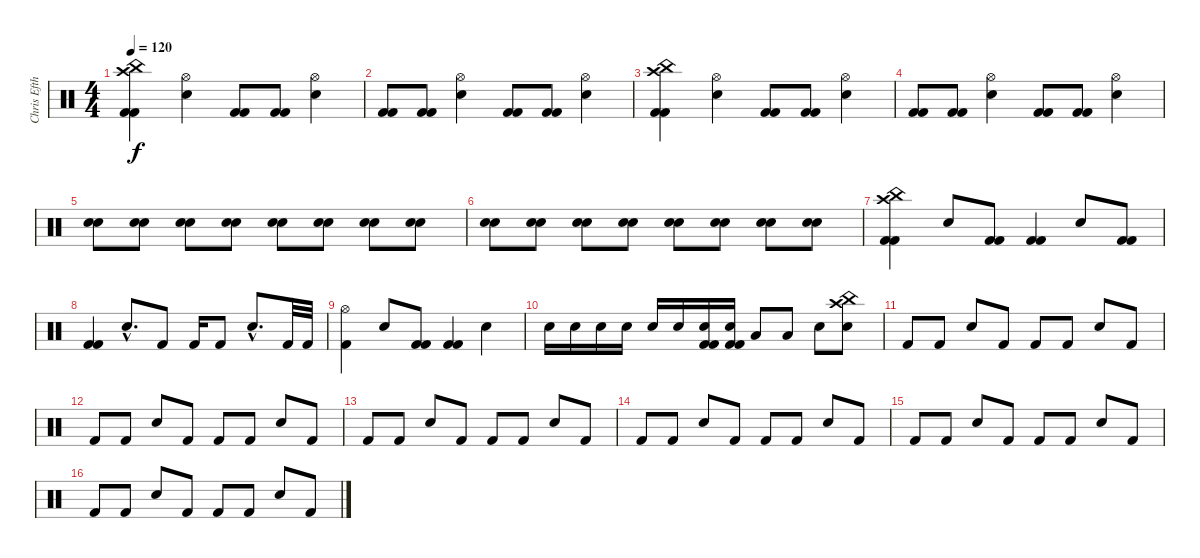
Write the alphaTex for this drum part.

\track ("Chris Efthimiadis" "Chris Efth") {instrument percussion}
\staff {score}
\articulation defaults
\ts (4 4)
\tempo 120
\clef neutral
\ks c
("Crash high (hit)" "Kick (hit) 2" "Kick (hit) 2" "China (hit)").4{dy f} ("Snare (hit) 2" "Hi-Hat (open)").4 ("Kick (hit) 2" "Kick (hit) 2").8 ("Kick (hit) 2" "Kick (hit) 2").8 ("Snare (hit) 2" "Hi-Hat (open)").4 |
("Kick (hit) 2" "Kick (hit) 2").8 ("Kick (hit) 2" "Kick (hit) 2").8 ("Snare (hit) 2" "Hi-Hat (open)").4 ("Kick (hit) 2" "Kick (hit) 2").8 ("Kick (hit) 2" "Kick (hit) 2").8 ("Snare (hit) 2" "Hi-Hat (open)").4 |
("Crash high (hit)" "Kick (hit) 2" "Kick (hit) 2" "China (hit)").4 ("Snare (hit) 2" "Hi-Hat (open)").4 ("Kick (hit) 2" "Kick (hit) 2").8 ("Kick (hit) 2" "Kick (hit) 2").8 ("Snare (hit) 2" "Hi-Hat (open)").4 |
("Kick (hit) 2" "Kick (hit) 2").8 ("Kick (hit) 2" "Kick (hit) 2").8 ("Snare (hit) 2" "Hi-Hat (open)").4 ("Kick (hit) 2" "Kick (hit) 2").8 ("Kick (hit) 2" "Kick (hit) 2").8 ("Hi-Hat (open)" "Snare (hit) 2").4 |
("Snare (hit) 2" "Snare (hit) 2").8 ("Snare (hit) 2" "Snare (hit) 2").8 ("Snare (hit) 2" "Snare (hit) 2").8 ("Snare (hit) 2" "Snare (hit) 2").8 ("Snare (hit) 2" "Snare (hit) 2").8 ("Snare (hit) 2" "Snare (hit) 2").8 ("Snare (hit) 2" "Snare (hit) 2").8 ("Snare (hit) 2" "Snare (hit) 2").8 |
("Snare (hit) 2" "Snare (hit) 2").8 ("Snare (hit) 2" "Snare (hit) 2").8 ("Snare (hit) 2" "Snare (hit) 2").8 ("Snare (hit) 2" "Snare (hit) 2").8 ("Snare (hit) 2" "Snare (hit) 2").8 ("Snare (hit) 2" "Snare (hit) 2").8 ("Snare (hit) 2" "Snare (hit) 2").8 ("Snare (hit) 2" "Snare (hit) 2").8 |
("Kick (hit) 2" "Kick (hit) 2" "China (hit)" "Crash high (hit)").4 "Snare (hit) 2".8 ("Kick (hit) 2" "Kick (hit) 2").8 ("Kick (hit) 2" "Kick (hit) 2").4 "Snare (hit) 2".8 ("Kick (hit) 2" "Kick (hit) 2").8 |
("Kick (hit) 2" "Kick (hit) 2").4 "Snare (hit) 2"{hac}.8{d} "Kick (hit) 2".8 "Kick (hit) 2".16 "Kick (hit) 2".8 "Snare (hit) 2"{hac}.8{d} "Kick (hit) 2".32 "Kick (hit) 2".32 |
("Hi-Hat (open)" "Kick (hit) 2").4 "Snare (hit) 2".8 ("Kick (hit) 2" "Kick (hit) 2").8 ("Kick (hit) 2" "Kick (hit) 2").4 "Snare (hit) 2".4 |
"Snare (hit) 2".16 "Snare (hit) 2".16 "Snare (hit) 2".16 "Snare (hit) 2".16 "Snare (hit) 2".16 "Snare (hit) 2".16 ("Snare (hit) 2" "Kick (hit) 2" "Kick (hit) 2").16 ("Snare (hit) 2" "Kick (hit) 2" "Kick (hit) 2").16 "Low Tom (hit)".8 "Low Tom (hit)".8 "Snare (hit) 2".8 ("Snare (hit) 2" "China (hit)" "Crash high (hit)").8 |
"Kick (hit) 2".8 "Kick (hit) 2".8 "Snare (hit) 2".8 "Kick (hit) 2".8 "Kick (hit) 2".8 "Kick (hit) 2".8 "Snare (hit) 2".8 "Kick (hit) 2".8 |
"Kick (hit) 2".8 "Kick (hit) 2".8 "Snare (hit) 2".8 "Kick (hit) 2".8 "Kick (hit) 2".8 "Kick (hit) 2".8 "Snare (hit) 2".8 "Kick (hit) 2".8 |
"Kick (hit) 2".8 "Kick (hit) 2".8 "Snare (hit) 2".8 "Kick (hit) 2".8 "Kick (hit) 2".8 "Kick (hit) 2".8 "Snare (hit) 2".8 "Kick (hit) 2".8 |
"Kick (hit) 2".8 "Kick (hit) 2".8 "Snare (hit) 2".8 "Kick (hit) 2".8 "Kick (hit) 2".8 "Kick (hit) 2".8 "Snare (hit) 2".8 "Kick (hit) 2".8 |
"Kick (hit) 2".8 "Kick (hit) 2".8 "Snare (hit) 2".8 "Kick (hit) 2".8 "Kick (hit) 2".8 "Kick (hit) 2".8 "Snare (hit) 2".8 "Kick (hit) 2".8 |
"Kick (hit) 2".8 "Kick (hit) 2".8 "Snare (hit) 2".8 "Kick (hit) 2".8 "Kick (hit) 2".8 "Kick (hit) 2".8 "Snare (hit) 2".8 "Kick (hit) 2".8
